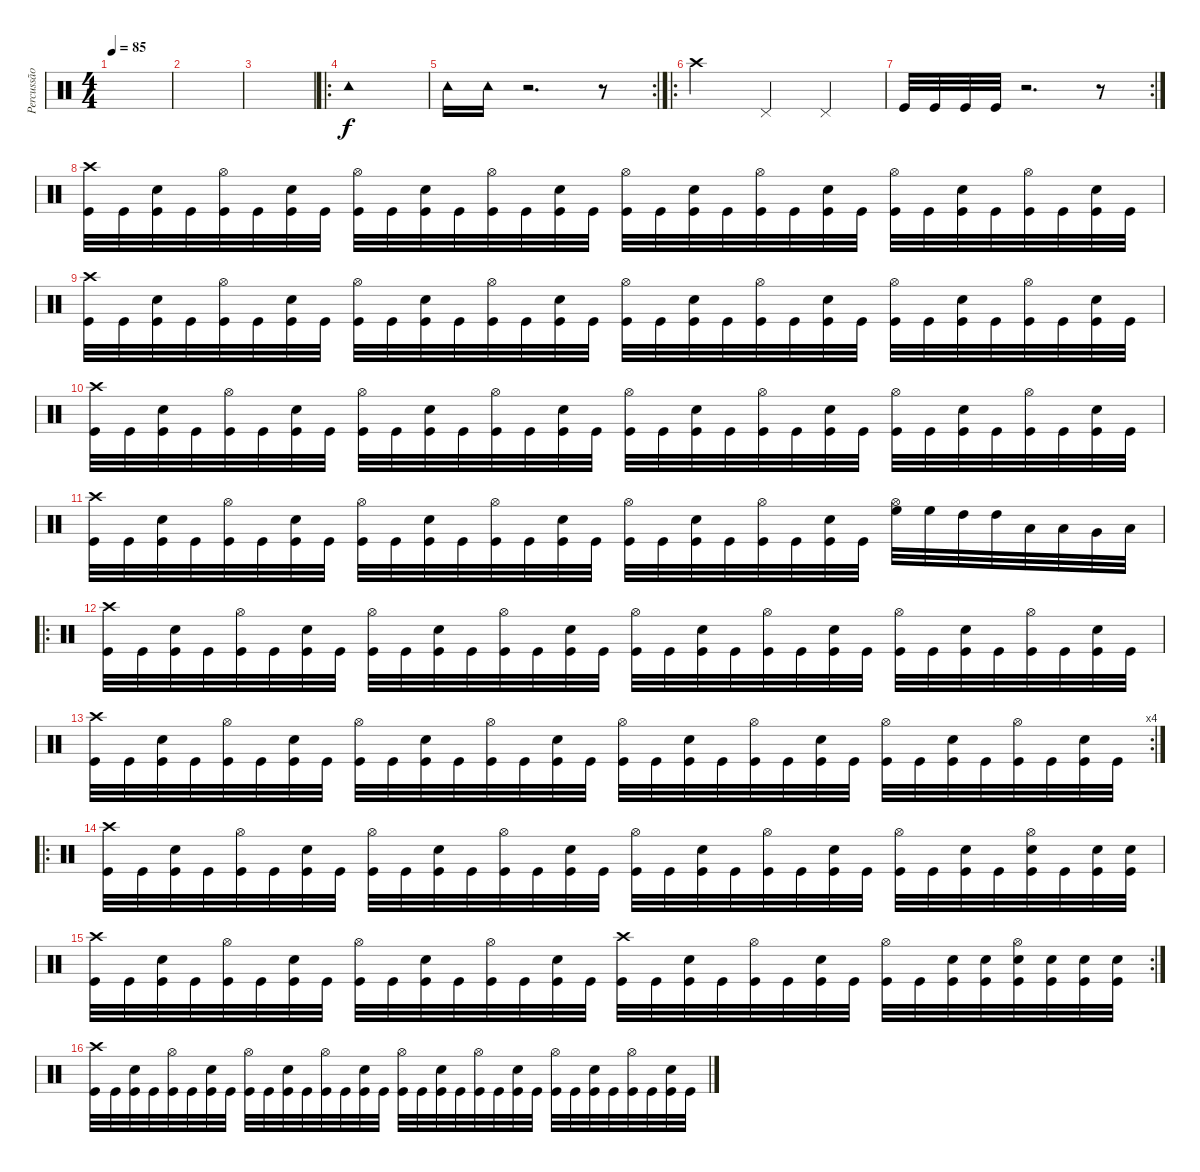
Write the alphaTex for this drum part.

\track ("Percussão" "Percussão") {instrument percussion}
\staff {score}
\articulation defaults
\ts (4 4)
\tempo 85
\clef neutral
\ks c
|
|
|
\ro "Tambourine (hit)".1
|
\rc 2 "Tambourine (hit)".16 "Tambourine (hit)".16
r.2{d} r.8 |
\ro "Crash high (hit)".2 "Pedal Hi-Hat (hit)".4 "Pedal Hi-Hat (hit)".4
|
\rc 2 "Kick (hit)".32 "Kick (hit)".32 "Kick (hit)".32 "Kick (hit)".32
r.2{d} r.8 |
("Crash high (hit)" "Kick (hit)").32 "Kick (hit)".32 ("Snare (hit) 2" "Kick (hit)").32 "Kick (hit)".32 ("Hi-Hat (open)" "Kick (hit)").32 "Kick (hit)".32 ("Snare (hit) 2" "Kick (hit)").32 "Kick (hit)".32 ("Hi-Hat (open)" "Kick (hit)").32 "Kick (hit)".32 ("Snare (hit) 2" "Kick (hit)").32 "Kick (hit)".32 ("Hi-Hat (open)" "Kick (hit)").32 "Kick (hit)".32 ("Snare (hit) 2" "Kick (hit)").32 "Kick (hit)".32 ("Hi-Hat (open)" "Kick (hit)").32 "Kick (hit)".32 ("Snare (hit) 2" "Kick (hit)").32 "Kick (hit)".32 ("Hi-Hat (open)" "Kick (hit)").32 "Kick (hit)".32 ("Snare (hit) 2" "Kick (hit)").32 "Kick (hit)".32 ("Hi-Hat (open)" "Kick (hit)").32 "Kick (hit)".32 ("Snare (hit) 2" "Kick (hit)").32 "Kick (hit)".32 ("Hi-Hat (open)" "Kick (hit)").32 "Kick (hit)".32 ("Snare (hit) 2" "Kick (hit)").32 "Kick (hit)".32 |
("Crash high (hit)" "Kick (hit)").32 "Kick (hit)".32 ("Snare (hit) 2" "Kick (hit)").32 "Kick (hit)".32 ("Hi-Hat (open)" "Kick (hit)").32 "Kick (hit)".32 ("Snare (hit) 2" "Kick (hit)").32 "Kick (hit)".32 ("Hi-Hat (open)" "Kick (hit)").32 "Kick (hit)".32 ("Snare (hit) 2" "Kick (hit)").32 "Kick (hit)".32 ("Hi-Hat (open)" "Kick (hit)").32 "Kick (hit)".32 ("Snare (hit) 2" "Kick (hit)").32 "Kick (hit)".32 ("Hi-Hat (open)" "Kick (hit)").32 "Kick (hit)".32 ("Snare (hit) 2" "Kick (hit)").32 "Kick (hit)".32 ("Hi-Hat (open)" "Kick (hit)").32 "Kick (hit)".32 ("Snare (hit) 2" "Kick (hit)").32 "Kick (hit)".32 ("Hi-Hat (open)" "Kick (hit)").32 "Kick (hit)".32 ("Snare (hit) 2" "Kick (hit)").32 "Kick (hit)".32 ("Hi-Hat (open)" "Kick (hit)").32 "Kick (hit)".32 ("Snare (hit) 2" "Kick (hit)").32 "Kick (hit)".32 |
("Crash high (hit)" "Kick (hit)").32 "Kick (hit)".32 ("Snare (hit) 2" "Kick (hit)").32 "Kick (hit)".32 ("Hi-Hat (open)" "Kick (hit)").32 "Kick (hit)".32 ("Snare (hit) 2" "Kick (hit)").32 "Kick (hit)".32 ("Hi-Hat (open)" "Kick (hit)").32 "Kick (hit)".32 ("Snare (hit) 2" "Kick (hit)").32 "Kick (hit)".32 ("Hi-Hat (open)" "Kick (hit)").32 "Kick (hit)".32 ("Snare (hit) 2" "Kick (hit)").32 "Kick (hit)".32 ("Hi-Hat (open)" "Kick (hit)").32 "Kick (hit)".32 ("Snare (hit) 2" "Kick (hit)").32 "Kick (hit)".32 ("Hi-Hat (open)" "Kick (hit)").32 "Kick (hit)".32 ("Snare (hit) 2" "Kick (hit)").32 "Kick (hit)".32 ("Hi-Hat (open)" "Kick (hit)").32 "Kick (hit)".32 ("Snare (hit) 2" "Kick (hit)").32 "Kick (hit)".32 ("Hi-Hat (open)" "Kick (hit)").32 "Kick (hit)".32 ("Snare (hit) 2" "Kick (hit)").32 "Kick (hit)".32 |
("Crash high (hit)" "Kick (hit)").32 "Kick (hit)".32 ("Snare (hit) 2" "Kick (hit)").32 "Kick (hit)".32 ("Hi-Hat (open)" "Kick (hit)").32 "Kick (hit)".32 ("Snare (hit) 2" "Kick (hit)").32 "Kick (hit)".32 ("Hi-Hat (open)" "Kick (hit)").32 "Kick (hit)".32 ("Snare (hit) 2" "Kick (hit)").32 "Kick (hit)".32 ("Hi-Hat (open)" "Kick (hit)").32 "Kick (hit)".32 ("Snare (hit) 2" "Kick (hit)").32 "Kick (hit)".32 ("Hi-Hat (open)" "Kick (hit)").32 "Kick (hit)".32 ("Snare (hit) 2" "Kick (hit)").32 "Kick (hit)".32 ("Hi-Hat (open)" "Kick (hit)").32 "Kick (hit)".32 ("Snare (hit) 2" "Kick (hit)").32 "Kick (hit)".32 ("Hi-Hat (open)" "High Floor Tom (hit)").32 "High Floor Tom (hit)".32 "High Tom (hit)".32 "High Tom (hit)".32 "Low Tom (hit)".32 "Low Tom (hit)".32 "Very Low Tom (hit)".32 "Low Floor Tom (hit)".32 |
\ro
("Crash high (hit)" "Kick (hit)").32 "Kick (hit)".32 ("Snare (hit) 2" "Kick (hit)").32 "Kick (hit)".32 ("Hi-Hat (open)" "Kick (hit)").32 "Kick (hit)".32 ("Snare (hit) 2" "Kick (hit)").32 "Kick (hit)".32 ("Hi-Hat (open)" "Kick (hit)").32 "Kick (hit)".32 ("Snare (hit) 2" "Kick (hit)").32 "Kick (hit)".32 ("Hi-Hat (open)" "Kick (hit)").32 "Kick (hit)".32 ("Snare (hit) 2" "Kick (hit)").32 "Kick (hit)".32 ("Hi-Hat (open)" "Kick (hit)").32 "Kick (hit)".32 ("Snare (hit) 2" "Kick (hit)").32 "Kick (hit)".32 ("Hi-Hat (open)" "Kick (hit)").32 "Kick (hit)".32 ("Snare (hit) 2" "Kick (hit)").32 "Kick (hit)".32 ("Hi-Hat (open)" "Kick (hit)").32 "Kick (hit)".32 ("Snare (hit) 2" "Kick (hit)").32 "Kick (hit)".32 ("Hi-Hat (open)" "Kick (hit)").32 "Kick (hit)".32 ("Snare (hit) 2" "Kick (hit)").32 "Kick (hit)".32 |
\rc 4
("Crash high (hit)" "Kick (hit)").32 "Kick (hit)".32 ("Snare (hit) 2" "Kick (hit)").32 "Kick (hit)".32 ("Hi-Hat (open)" "Kick (hit)").32 "Kick (hit)".32 ("Snare (hit) 2" "Kick (hit)").32 "Kick (hit)".32 ("Hi-Hat (open)" "Kick (hit)").32 "Kick (hit)".32 ("Snare (hit) 2" "Kick (hit)").32 "Kick (hit)".32 ("Hi-Hat (open)" "Kick (hit)").32 "Kick (hit)".32 ("Snare (hit) 2" "Kick (hit)").32 "Kick (hit)".32 ("Hi-Hat (open)" "Kick (hit)").32 "Kick (hit)".32 ("Snare (hit) 2" "Kick (hit)").32 "Kick (hit)".32 ("Hi-Hat (open)" "Kick (hit)").32 "Kick (hit)".32 ("Snare (hit) 2" "Kick (hit)").32 "Kick (hit)".32 ("Hi-Hat (open)" "Kick (hit)").32 "Kick (hit)".32 ("Snare (hit) 2" "Kick (hit)").32 "Kick (hit)".32 ("Hi-Hat (open)" "Kick (hit)").32 "Kick (hit)".32 ("Snare (hit) 2" "Kick (hit)").32 "Kick (hit)".32 |
\ro
("Crash high (hit)" "Kick (hit)").32 "Kick (hit)".32 ("Snare (hit) 2" "Kick (hit)").32 "Kick (hit)".32 ("Hi-Hat (open)" "Kick (hit)").32 "Kick (hit)".32 ("Snare (hit) 2" "Kick (hit)").32 "Kick (hit)".32 ("Hi-Hat (open)" "Kick (hit)").32 "Kick (hit)".32 ("Snare (hit) 2" "Kick (hit)").32 "Kick (hit)".32 ("Hi-Hat (open)" "Kick (hit)").32 "Kick (hit)".32 ("Snare (hit) 2" "Kick (hit)").32 "Kick (hit)".32 ("Hi-Hat (open)" "Kick (hit)").32 "Kick (hit)".32 ("Snare (hit) 2" "Kick (hit)").32 "Kick (hit)".32 ("Hi-Hat (open)" "Kick (hit)").32 "Kick (hit)".32 ("Snare (hit) 2" "Kick (hit)").32 "Kick (hit)".32 ("Hi-Hat (open)" "Kick (hit)").32 "Kick (hit)".32 ("Snare (hit) 2" "Kick (hit)").32 "Kick (hit)".32 ("Hi-Hat (open)" "Snare (hit) 2" "Kick (hit)").32 "Kick (hit)".32 ("Snare (hit) 2" "Kick (hit)").32 ("Snare (hit) 2" "Kick (hit)").32 |
\rc 2
("Crash high (hit)" "Kick (hit)").32 "Kick (hit)".32 ("Snare (hit) 2" "Kick (hit)").32 "Kick (hit)".32 ("Hi-Hat (open)" "Kick (hit)").32 "Kick (hit)".32 ("Snare (hit) 2" "Kick (hit)").32 "Kick (hit)".32 ("Hi-Hat (open)" "Kick (hit)").32 "Kick (hit)".32 ("Snare (hit) 2" "Kick (hit)").32 "Kick (hit)".32 ("Hi-Hat (open)" "Kick (hit)").32 "Kick (hit)".32 ("Snare (hit) 2" "Kick (hit)").32 "Kick (hit)".32 ("Crash high (hit)" "Kick (hit)").32 "Kick (hit)".32 ("Snare (hit) 2" "Kick (hit)").32 "Kick (hit)".32 ("Hi-Hat (open)" "Kick (hit)").32 "Kick (hit)".32 ("Snare (hit) 2" "Kick (hit)").32 "Kick (hit)".32 ("Hi-Hat (open)" "Kick (hit)").32 "Kick (hit)".32 ("Snare (hit) 2" "Kick (hit)").32 ("Snare (hit) 2" "Kick (hit)").32 ("Hi-Hat (open)" "Snare (hit) 2" "Kick (hit)").32 ("Snare (hit) 2" "Kick (hit)").32 ("Snare (hit) 2" "Kick (hit)").32 ("Snare (hit) 2" "Kick (hit)").32 |
("Crash high (hit)" "Kick (hit)").32 "Kick (hit)".32 ("Snare (hit) 2" "Kick (hit)").32 "Kick (hit)".32 ("Hi-Hat (open)" "Kick (hit)").32 "Kick (hit)".32 ("Snare (hit) 2" "Kick (hit)").32 "Kick (hit)".32 ("Hi-Hat (open)" "Kick (hit)").32 "Kick (hit)".32 ("Snare (hit) 2" "Kick (hit)").32 "Kick (hit)".32 ("Hi-Hat (open)" "Kick (hit)").32 "Kick (hit)".32 ("Snare (hit) 2" "Kick (hit)").32 "Kick (hit)".32 ("Hi-Hat (open)" "Kick (hit)").32 "Kick (hit)".32 ("Snare (hit) 2" "Kick (hit)").32 "Kick (hit)".32 ("Hi-Hat (open)" "Kick (hit)").32 "Kick (hit)".32 ("Snare (hit) 2" "Kick (hit)").32 "Kick (hit)".32 ("Hi-Hat (open)" "Kick (hit)").32 "Kick (hit)".32 ("Snare (hit) 2" "Kick (hit)").32 "Kick (hit)".32 ("Hi-Hat (open)" "Kick (hit)").32 "Kick (hit)".32 ("Snare (hit) 2" "Kick (hit)").32 "Kick (hit)".32
